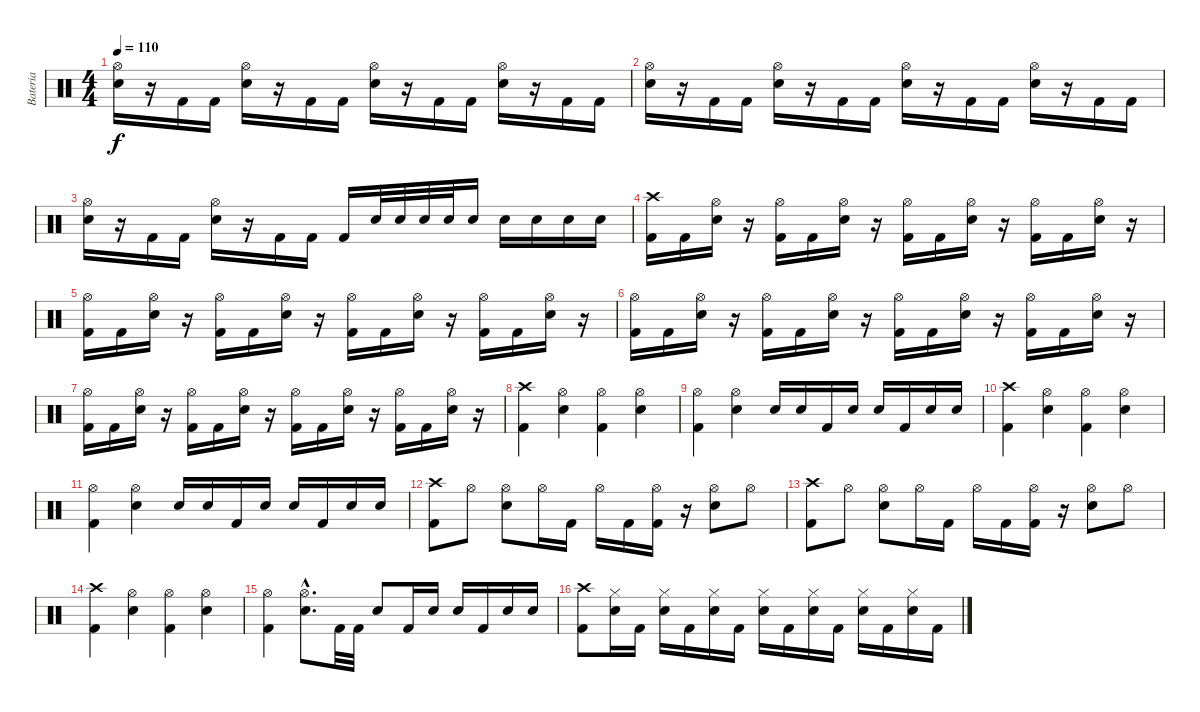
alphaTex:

\track ("Bateria" "Bateria") {instrument percussion}
\staff {score}
\articulation defaults
\ts (4 4)
\tempo 110
\clef neutral
\ks c
("Hi-Hat (open)" "Electric Snare (hit)").16{dy f} r.16 "Kick (hit) 2".16 "Kick (hit) 2".16 ("Hi-Hat (open)" "Electric Snare (hit)").16 r.16 "Kick (hit) 2".16 "Kick (hit) 2".16 ("Hi-Hat (open)" "Electric Snare (hit)").16 r.16 "Kick (hit) 2".16 "Kick (hit) 2".16 ("Hi-Hat (open)" "Electric Snare (hit)").16 r.16 "Kick (hit) 2".16 "Kick (hit) 2".16 |
("Hi-Hat (open)" "Electric Snare (hit)").16 r.16 "Kick (hit) 2".16 "Kick (hit) 2".16 ("Hi-Hat (open)" "Electric Snare (hit)").16 r.16 "Kick (hit) 2".16 "Kick (hit) 2".16 ("Hi-Hat (open)" "Electric Snare (hit)").16 r.16 "Kick (hit) 2".16 "Kick (hit) 2".16 ("Hi-Hat (open)" "Electric Snare (hit)").16 r.16 "Kick (hit) 2".16 "Kick (hit) 2".16 |
("Hi-Hat (open)" "Electric Snare (hit)").16 r.16 "Kick (hit) 2".16 "Kick (hit) 2".16 ("Hi-Hat (open)" "Electric Snare (hit)").16 r.16 "Kick (hit) 2".16 "Kick (hit) 2".16 "Kick (hit) 2".16 "Electric Snare (hit)".32 "Electric Snare (hit)".32 "Electric Snare (hit)".32 "Electric Snare (hit)".32 "Electric Snare (hit)".16 "Electric Snare (hit)".16 "Electric Snare (hit)".16 "Electric Snare (hit)".16 "Electric Snare (hit)".16 |
("Crash high (hit)" "Kick (hit) 2").16 "Kick (hit) 2".16 ("Hi-Hat (open)" "Electric Snare (hit)").16 r.16 ("Hi-Hat (open)" "Kick (hit) 2").16 "Kick (hit) 2".16 ("Hi-Hat (open)" "Electric Snare (hit)").16 r.16 ("Hi-Hat (open)" "Kick (hit) 2").16 "Kick (hit) 2".16 ("Hi-Hat (open)" "Electric Snare (hit)").16 r.16 ("Hi-Hat (open)" "Kick (hit) 2").16 "Kick (hit) 2".16 ("Hi-Hat (open)" "Electric Snare (hit)").16 r.16 |
("Hi-Hat (open)" "Kick (hit) 2").16 "Kick (hit) 2".16 ("Hi-Hat (open)" "Electric Snare (hit)").16 r.16 ("Hi-Hat (open)" "Kick (hit) 2").16 "Kick (hit) 2".16 ("Hi-Hat (open)" "Electric Snare (hit)").16 r.16 ("Hi-Hat (open)" "Kick (hit) 2").16 "Kick (hit) 2".16 ("Hi-Hat (open)" "Electric Snare (hit)").16 r.16 ("Hi-Hat (open)" "Kick (hit) 2").16 "Kick (hit) 2".16 ("Hi-Hat (open)" "Electric Snare (hit)").16 r.16 |
("Hi-Hat (open)" "Kick (hit) 2").16 "Kick (hit) 2".16 ("Hi-Hat (open)" "Electric Snare (hit)").16 r.16 ("Hi-Hat (open)" "Kick (hit) 2").16 "Kick (hit) 2".16 ("Hi-Hat (open)" "Electric Snare (hit)").16 r.16 ("Hi-Hat (open)" "Kick (hit) 2").16 "Kick (hit) 2".16 ("Hi-Hat (open)" "Electric Snare (hit)").16 r.16 ("Hi-Hat (open)" "Kick (hit) 2").16 "Kick (hit) 2".16 ("Hi-Hat (open)" "Electric Snare (hit)").16 r.16 |
("Hi-Hat (open)" "Kick (hit) 2").16 "Kick (hit) 2".16 ("Hi-Hat (open)" "Electric Snare (hit)").16 r.16 ("Hi-Hat (open)" "Kick (hit) 2").16 "Kick (hit) 2".16 ("Hi-Hat (open)" "Electric Snare (hit)").16 r.16 ("Hi-Hat (open)" "Kick (hit) 2").16 "Kick (hit) 2".16 ("Hi-Hat (open)" "Electric Snare (hit)").16 r.16 ("Hi-Hat (open)" "Kick (hit) 2").16 "Kick (hit) 2".16 ("Hi-Hat (open)" "Electric Snare (hit)").16 r.16 |
("Crash high (hit)" "Kick (hit) 2").4 ("Hi-Hat (open)" "Electric Snare (hit)").4 ("Hi-Hat (open)" "Kick (hit) 2").4 ("Hi-Hat (open)" "Electric Snare (hit)").4 |
("Hi-Hat (open)" "Kick (hit) 2").4 ("Hi-Hat (open)" "Electric Snare (hit)").4 "Electric Snare (hit)".16 "Electric Snare (hit)".16 "Kick (hit) 2".16 "Electric Snare (hit)".16 "Electric Snare (hit)".16 "Kick (hit) 2".16 "Electric Snare (hit)".16 "Electric Snare (hit)".16 |
("Crash high (hit)" "Kick (hit) 2").4 ("Hi-Hat (open)" "Electric Snare (hit)").4 ("Hi-Hat (open)" "Kick (hit) 2").4 ("Hi-Hat (open)" "Electric Snare (hit)").4 |
("Hi-Hat (open)" "Kick (hit) 2").4 ("Hi-Hat (open)" "Electric Snare (hit)").4 "Electric Snare (hit)".16 "Electric Snare (hit)".16 "Kick (hit) 2".16 "Electric Snare (hit)".16 "Electric Snare (hit)".16 "Kick (hit) 2".16 "Electric Snare (hit)".16 "Electric Snare (hit)".16 |
("Crash high (hit)" "Kick (hit) 2").8 "Hi-Hat (open)".8 ("Hi-Hat (open)" "Electric Snare (hit)").8 "Hi-Hat (open)".16 "Kick (hit) 2".16 "Hi-Hat (open)".16 "Kick (hit) 2".16 ("Hi-Hat (open)" "Kick (hit) 2").16 r.16 ("Hi-Hat (open)" "Electric Snare (hit)").8 "Hi-Hat (open)".8 |
("Crash high (hit)" "Kick (hit) 2").8 "Hi-Hat (open)".8 ("Hi-Hat (open)" "Electric Snare (hit)").8 "Hi-Hat (open)".16 "Kick (hit) 2".16 "Hi-Hat (open)".16 "Kick (hit) 2".16 ("Hi-Hat (open)" "Kick (hit) 2").16 r.16 ("Hi-Hat (open)" "Electric Snare (hit)").8 "Hi-Hat (open)".8 |
("Crash high (hit)" "Kick (hit) 2").4 ("Hi-Hat (open)" "Electric Snare (hit)").4 ("Hi-Hat (open)" "Kick (hit) 2").4 ("Hi-Hat (open)" "Electric Snare (hit)").4 |
("Hi-Hat (open)" "Kick (hit) 2").4 ("Hi-Hat (open)"{hac} "Electric Snare (hit)"{hac}).8{d} "Kick (hit) 2".32 "Kick (hit) 2".32 "Electric Snare (hit)".8 "Kick (hit) 2".16 "Electric Snare (hit)".16 "Electric Snare (hit)".16 "Kick (hit) 2".16 "Electric Snare (hit)".16 "Electric Snare (hit)".16 |
("Crash high (hit)" "Kick (hit) 2").8 ("Hi-Hat (closed)" "Electric Snare (hit)").16 "Kick (hit) 2".16 ("Hi-Hat (closed)" "Electric Snare (hit)").16 "Kick (hit) 2".16 ("Hi-Hat (closed)" "Electric Snare (hit)").16 "Kick (hit) 2".16 ("Hi-Hat (closed)" "Electric Snare (hit)").16 "Kick (hit) 2".16 ("Hi-Hat (closed)" "Electric Snare (hit)").16 "Kick (hit) 2".16 ("Hi-Hat (closed)" "Electric Snare (hit)").16 "Kick (hit) 2".16 ("Hi-Hat (closed)" "Electric Snare (hit)").16 "Kick (hit) 2".16
